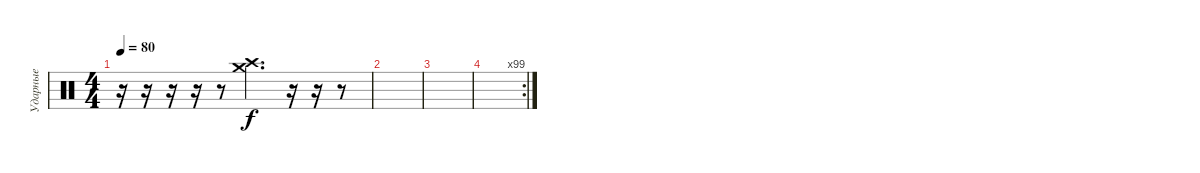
\track ("Ударные" "Ударные") {instrument percussion}
\staff {score}
\articulation defaults
\ts (4 4)
\tempo 80
\clef neutral
\ks c
r.16{dy f} r.16 r.16 r.16 r.8 ("Crash high (hit)" "Crash medium (hit)").4{d} r.16 r.16 r.8 |
|
|
\rc 99
